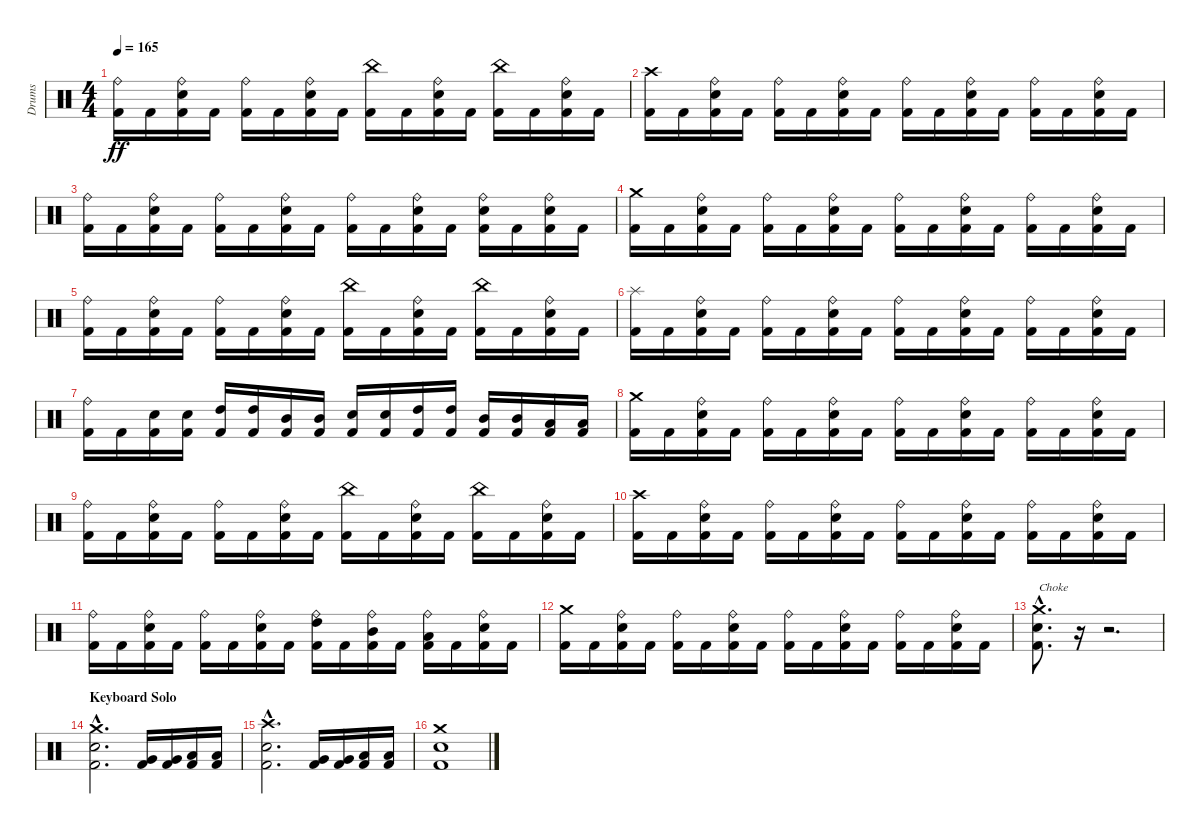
\track ("Drums" "Drums") {instrument percussion}
\staff {score}
\articulation defaults
\ts (4 4)
\tempo 165
\clef neutral
\ks c
("Ride (bell)" "Kick (hit) 2").16{dy ff} "Kick (hit) 2".16 ("Ride (bell)" "Electric Snare (hit)" "Kick (hit) 2").16 "Kick (hit) 2".16 ("Ride (bell)" "Kick (hit) 2").16 "Kick (hit) 2".16 ("Ride (bell)" "Electric Snare (hit)" "Kick (hit) 2").16 "Kick (hit) 2".16 ("China (hit)" "Kick (hit) 2").16 "Kick (hit) 2".16 ("Ride (bell)" "Electric Snare (hit)" "Kick (hit) 2").16 "Kick (hit) 2".16 ("China (hit)" "Kick (hit) 2").16 "Kick (hit) 2".16 ("Ride (bell)" "Electric Snare (hit)" "Kick (hit) 2").16 "Kick (hit) 2".16 |
("Crash high (hit)" "Kick (hit) 2").16 "Kick (hit) 2".16 ("Ride (bell)" "Electric Snare (hit)" "Kick (hit) 2").16 "Kick (hit) 2".16 ("Ride (bell)" "Kick (hit) 2").16 "Kick (hit) 2".16 ("Ride (bell)" "Electric Snare (hit)" "Kick (hit) 2").16 "Kick (hit) 2".16 ("Ride (bell)" "Kick (hit) 2").16 "Kick (hit) 2".16 ("Ride (bell)" "Electric Snare (hit)" "Kick (hit) 2").16 "Kick (hit) 2".16 ("Ride (bell)" "Kick (hit) 2").16 "Kick (hit) 2".16 ("Ride (bell)" "Electric Snare (hit)" "Kick (hit) 2").16 "Kick (hit) 2".16 |
("Ride (bell)" "Kick (hit) 2").16 "Kick (hit) 2".16 ("Ride (bell)" "Electric Snare (hit)" "Kick (hit) 2").16 "Kick (hit) 2".16 ("Ride (bell)" "Kick (hit) 2").16 "Kick (hit) 2".16 ("Ride (bell)" "Electric Snare (hit)" "Kick (hit) 2").16 "Kick (hit) 2".16 ("Ride (bell)" "Kick (hit) 2").16 "Kick (hit) 2".16 ("Ride (bell)" "Electric Snare (hit)" "Kick (hit) 2").16 "Kick (hit) 2".16 ("Ride (bell)" "Electric Snare (hit)" "Kick (hit) 2").16 "Kick (hit) 2".16 ("Ride (bell)" "Electric Snare (hit)" "Kick (hit) 2").16 "Kick (hit) 2".16 |
("Crash medium (hit)" "Kick (hit) 2").16 "Kick (hit) 2".16 ("Ride (bell)" "Electric Snare (hit)" "Kick (hit) 2").16 "Kick (hit) 2".16 ("Ride (bell)" "Kick (hit) 2").16 "Kick (hit) 2".16 ("Ride (bell)" "Electric Snare (hit)" "Kick (hit) 2").16 "Kick (hit) 2".16 ("Ride (bell)" "Kick (hit) 2").16 "Kick (hit) 2".16 ("Ride (bell)" "Electric Snare (hit)" "Kick (hit) 2").16 "Kick (hit) 2".16 ("Ride (bell)" "Kick (hit) 2").16 "Kick (hit) 2".16 ("Ride (bell)" "Electric Snare (hit)" "Kick (hit) 2").16 "Kick (hit) 2".16 |
("Ride (bell)" "Kick (hit) 2").16 "Kick (hit) 2".16 ("Ride (bell)" "Electric Snare (hit)" "Kick (hit) 2").16 "Kick (hit) 2".16 ("Ride (bell)" "Kick (hit) 2").16 "Kick (hit) 2".16 ("Ride (bell)" "Electric Snare (hit)" "Kick (hit) 2").16 "Kick (hit) 2".16 ("China (hit)" "Kick (hit) 2").16 "Kick (hit) 2".16 ("Ride (bell)" "Electric Snare (hit)" "Kick (hit) 2").16 "Kick (hit) 2".16 ("China (hit)" "Kick (hit) 2").16 "Kick (hit) 2".16 ("Ride (bell)" "Electric Snare (hit)" "Kick (hit) 2").16 "Kick (hit) 2".16 |
("Splash (hit)" "Kick (hit) 2").16 "Kick (hit) 2".16 ("Ride (bell)" "Electric Snare (hit)" "Kick (hit) 2").16 "Kick (hit) 2".16 ("Ride (bell)" "Kick (hit) 2").16 "Kick (hit) 2".16 ("Ride (bell)" "Electric Snare (hit)" "Kick (hit) 2").16 "Kick (hit) 2".16 ("Ride (bell)" "Kick (hit) 2").16 "Kick (hit) 2".16 ("Ride (bell)" "Electric Snare (hit)" "Kick (hit) 2").16 "Kick (hit) 2".16 ("Ride (bell)" "Kick (hit) 2").16 "Kick (hit) 2".16 ("Ride (bell)" "Electric Snare (hit)" "Kick (hit) 2").16 "Kick (hit) 2".16 |
("Ride (bell)" "Kick (hit) 2").16 "Kick (hit) 2".16 ("Electric Snare (hit)" "Kick (hit) 2").16 ("Electric Snare (hit)" "Kick (hit) 2").16 ("High Tom (hit)" "Kick (hit) 2").16 ("High Tom (hit)" "Kick (hit) 2").16 ("Mid Tom (hit)" "Kick (hit) 2").16 ("Mid Tom (hit)" "Kick (hit) 2").16 ("Electric Snare (hit)" "Kick (hit) 2").16 ("Electric Snare (hit)" "Kick (hit) 2").16 ("High Tom (hit)" "Kick (hit) 2").16 ("High Tom (hit)" "Kick (hit) 2").16 ("Mid Tom (hit)" "Kick (hit) 2").16 ("Mid Tom (hit)" "Kick (hit) 2").16 ("Low Tom (hit)" "Kick (hit) 2").16 ("Low Tom (hit)" "Kick (hit) 2").16 |
("Crash medium (hit)" "Kick (hit) 2").16 "Kick (hit) 2".16 ("Ride (bell)" "Electric Snare (hit)" "Kick (hit) 2").16 "Kick (hit) 2".16 ("Ride (bell)" "Kick (hit) 2").16 "Kick (hit) 2".16 ("Ride (bell)" "Electric Snare (hit)" "Kick (hit) 2").16 "Kick (hit) 2".16 ("Ride (bell)" "Kick (hit) 2").16 "Kick (hit) 2".16 ("Ride (bell)" "Electric Snare (hit)" "Kick (hit) 2").16 "Kick (hit) 2".16 ("Ride (bell)" "Kick (hit) 2").16 "Kick (hit) 2".16 ("Ride (bell)" "Electric Snare (hit)" "Kick (hit) 2").16 "Kick (hit) 2".16 |
("Ride (bell)" "Kick (hit) 2").16 "Kick (hit) 2".16 ("Ride (bell)" "Electric Snare (hit)" "Kick (hit) 2").16 "Kick (hit) 2".16 ("Ride (bell)" "Kick (hit) 2").16 "Kick (hit) 2".16 ("Ride (bell)" "Electric Snare (hit)" "Kick (hit) 2").16 "Kick (hit) 2".16 ("China (hit)" "Kick (hit) 2").16 "Kick (hit) 2".16 ("Ride (bell)" "Electric Snare (hit)" "Kick (hit) 2").16 "Kick (hit) 2".16 ("China (hit)" "Kick (hit) 2").16 "Kick (hit) 2".16 ("Ride (bell)" "Electric Snare (hit)" "Kick (hit) 2").16 "Kick (hit) 2".16 |
("Crash high (hit)" "Kick (hit) 2").16 "Kick (hit) 2".16 ("Ride (bell)" "Electric Snare (hit)" "Kick (hit) 2").16 "Kick (hit) 2".16 ("Ride (bell)" "Kick (hit) 2").16 "Kick (hit) 2".16 ("Ride (bell)" "Electric Snare (hit)" "Kick (hit) 2").16 "Kick (hit) 2".16 ("Ride (bell)" "Kick (hit) 2").16 "Kick (hit) 2".16 ("Ride (bell)" "Electric Snare (hit)" "Kick (hit) 2").16 "Kick (hit) 2".16 ("Ride (bell)" "Kick (hit) 2").16 "Kick (hit) 2".16 ("Ride (bell)" "Electric Snare (hit)" "Kick (hit) 2").16 "Kick (hit) 2".16 |
("Ride (bell)" "Kick (hit) 2").16 "Kick (hit) 2".16 ("Ride (bell)" "Electric Snare (hit)" "Kick (hit) 2").16 "Kick (hit) 2".16 ("Ride (bell)" "Kick (hit) 2").16 "Kick (hit) 2".16 ("Ride (bell)" "Electric Snare (hit)" "Kick (hit) 2").16 "Kick (hit) 2".16 ("Ride (bell)" "High Tom (hit)" "Kick (hit) 2").16 "Kick (hit) 2".16 ("Ride (bell)" "Mid Tom (hit)" "Kick (hit) 2").16 "Kick (hit) 2".16 ("Ride (bell)" "Low Tom (hit)" "Kick (hit) 2").16 "Kick (hit) 2".16 ("Ride (bell)" "Electric Snare (hit)" "Kick (hit) 2").16 "Kick (hit) 2".16 |
("Crash medium (hit)" "Kick (hit) 2").16 "Kick (hit) 2".16 ("Ride (bell)" "Electric Snare (hit)" "Kick (hit) 2").16 "Kick (hit) 2".16 ("Ride (bell)" "Kick (hit) 2").16 "Kick (hit) 2".16 ("Ride (bell)" "Electric Snare (hit)" "Kick (hit) 2").16 "Kick (hit) 2".16 ("Ride (bell)" "Kick (hit) 2").16 "Kick (hit) 2".16 ("Ride (bell)" "Electric Snare (hit)" "Kick (hit) 2").16 "Kick (hit) 2".16 ("Ride (bell)" "Kick (hit) 2").16 "Kick (hit) 2".16 ("Ride (bell)" "Electric Snare (hit)" "Kick (hit) 2").16 "Kick (hit) 2".16 |
("Crash medium (hit)"{hac} "Electric Snare (hit)"{hac} "Kick (hit) 2"{hac}).8{d txt "Choke"} r.16{volume 0} r.2{d} |
\section ("" "Keyboard Solo")
("Crash medium (hit)"{hac} "Electric Snare (hit)"{hac} "Kick (hit) 2"{hac}).2{d volume 15} ("Very Low Tom (hit)" "Kick (hit) 2").16 ("Very Low Tom (hit)" "Kick (hit) 2").16 ("Low Floor Tom (hit)" "Kick (hit) 2").16 ("Low Floor Tom (hit)" "Kick (hit) 2").16 |
("Crash high (hit)"{hac} "Electric Snare (hit)"{hac} "Kick (hit) 2"{hac}).2{d} ("Very Low Tom (hit)" "Kick (hit) 2").16 ("Very Low Tom (hit)" "Kick (hit) 2").16 ("Low Floor Tom (hit)" "Kick (hit) 2").16 ("Low Floor Tom (hit)" "Kick (hit) 2").16 |
("Crash medium (hit)" "Electric Snare (hit)" "Kick (hit) 2").1
